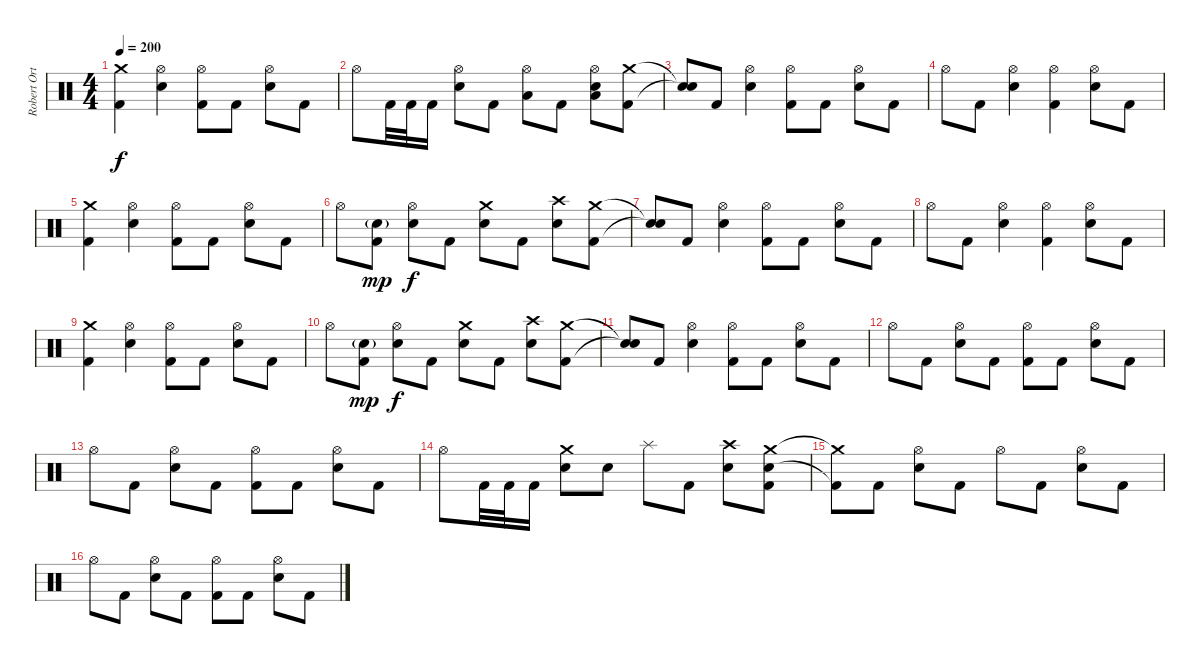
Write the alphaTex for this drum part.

\track ("Robert Ortiz - Drums" "Robert Ort") {instrument percussion}
\staff {score}
\articulation defaults
\ts (4 4)
\tempo 200
\clef neutral
\ks c
("Crash medium (hit)" "Kick (hit) 2").4{dy f} ("Hi-Hat (open)" "Electric Snare (hit)").4 ("Hi-Hat (open)" "Kick (hit) 2").8 "Kick (hit) 2".8 ("Hi-Hat (open)" "Electric Snare (hit)").8 "Kick (hit) 2".8 |
"Hi-Hat (open)".8 "Kick (hit) 2".32 "Kick (hit) 2".32 "Kick (hit) 2".16 ("Hi-Hat (open)" "Electric Snare (hit)").8 "Kick (hit) 2".8 ("Hi-Hat (open)" "Low Tom (hit)").8 "Kick (hit) 2".8 ("Hi-Hat (open)" "Electric Snare (hit)" "Low Floor Tom (hit)").8 ("Crash medium (hit)" "Kick (hit) 2").8 |
("Snare (hit)"{t} "Snare (hit)"{t}).8 "Kick (hit) 2".8 ("Hi-Hat (open)" "Electric Snare (hit)").4 ("Hi-Hat (open)" "Kick (hit) 2").8 "Kick (hit) 2".8 ("Hi-Hat (open)" "Electric Snare (hit)").8 "Kick (hit) 2".8 |
"Hi-Hat (open)".8 "Kick (hit) 2".8 ("Hi-Hat (open)" "Electric Snare (hit)").4 ("Hi-Hat (open)" "Kick (hit) 2").4 ("Hi-Hat (open)" "Electric Snare (hit)").8 "Kick (hit) 2".8 |
("Crash medium (hit)" "Kick (hit) 2").4 ("Hi-Hat (open)" "Electric Snare (hit)").4 ("Hi-Hat (open)" "Kick (hit) 2").8 "Kick (hit) 2".8 ("Hi-Hat (open)" "Electric Snare (hit)").8 "Kick (hit) 2".8 |
"Hi-Hat (open)".8 ("Electric Snare (hit)"{g} "Kick (hit) 2").8{dy mp} ("Hi-Hat (open)" "Electric Snare (hit)").8{dy f} "Kick (hit) 2".8 ("Crash medium (hit)" "Electric Snare (hit)").8 "Kick (hit) 2".8 ("Crash high (hit)" "Electric Snare (hit)").8 ("Crash medium (hit)" "Kick (hit) 2").8 |
("Snare (hit)"{t} "Snare (hit)"{t}).8 "Kick (hit) 2".8 ("Hi-Hat (open)" "Electric Snare (hit)").4 ("Hi-Hat (open)" "Kick (hit) 2").8 "Kick (hit) 2".8 ("Hi-Hat (open)" "Electric Snare (hit)").8 "Kick (hit) 2".8 |
"Hi-Hat (open)".8 "Kick (hit) 2".8 ("Hi-Hat (open)" "Electric Snare (hit)").4 ("Hi-Hat (open)" "Kick (hit) 2").4 ("Hi-Hat (open)" "Electric Snare (hit)").8 "Kick (hit) 2".8 |
("Crash medium (hit)" "Kick (hit) 2").4 ("Hi-Hat (open)" "Electric Snare (hit)").4 ("Hi-Hat (open)" "Kick (hit) 2").8 "Kick (hit) 2".8 ("Hi-Hat (open)" "Electric Snare (hit)").8 "Kick (hit) 2".8 |
"Hi-Hat (open)".8 ("Electric Snare (hit)"{g} "Kick (hit) 2").8{dy mp} ("Hi-Hat (open)" "Electric Snare (hit)").8{dy f} "Kick (hit) 2".8 ("Crash medium (hit)" "Electric Snare (hit)").8 "Kick (hit) 2".8 ("Crash high (hit)" "Electric Snare (hit)").8 ("Crash medium (hit)" "Kick (hit) 2").8 |
("Snare (hit)"{t} "Snare (hit)"{t}).8 "Kick (hit) 2".8 ("Hi-Hat (open)" "Electric Snare (hit)").4 ("Hi-Hat (open)" "Kick (hit) 2").8 "Kick (hit) 2".8 ("Hi-Hat (open)" "Electric Snare (hit)").8 "Kick (hit) 2".8 |
"Hi-Hat (open)".8 "Kick (hit) 2".8 ("Hi-Hat (open)" "Electric Snare (hit)").8 "Kick (hit) 2".8 ("Hi-Hat (open)" "Kick (hit) 2").8 "Kick (hit) 2".8 ("Hi-Hat (open)" "Electric Snare (hit)").8 "Kick (hit) 2".8 |
"Hi-Hat (open)".8 "Kick (hit) 2".8 ("Hi-Hat (open)" "Electric Snare (hit)").8 "Kick (hit) 2".8 ("Hi-Hat (open)" "Kick (hit) 2").8 "Kick (hit) 2".8 ("Hi-Hat (open)" "Electric Snare (hit)").8 "Kick (hit) 2".8 |
"Hi-Hat (open)".8 "Kick (hit) 2".32 "Kick (hit) 2".32 "Kick (hit) 2".16 ("Crash medium (hit)" "Electric Snare (hit)").8 "Electric Snare (hit)".8 "Splash (hit)".8 "Kick (hit) 2".8 ("Crash high (hit)" "Electric Snare (hit)").8 ("Crash medium (hit)" "Electric Snare (hit)" "Kick (hit) 2").8 |
("Crash medium (hit)"{t} "Kick (hit) 2"{t}).8 "Kick (hit) 2".8 ("Hi-Hat (open)" "Electric Snare (hit)").8 "Kick (hit) 2".8 "Hi-Hat (open)".8 "Kick (hit) 2".8 ("Hi-Hat (open)" "Electric Snare (hit)").8 "Kick (hit) 2".8 |
"Hi-Hat (open)".8 "Kick (hit) 2".8 ("Hi-Hat (open)" "Electric Snare (hit)").8 "Kick (hit) 2".8 ("Hi-Hat (open)" "Kick (hit) 2").8 "Kick (hit) 2".8 ("Hi-Hat (open)" "Electric Snare (hit)").8 "Kick (hit) 2".8
